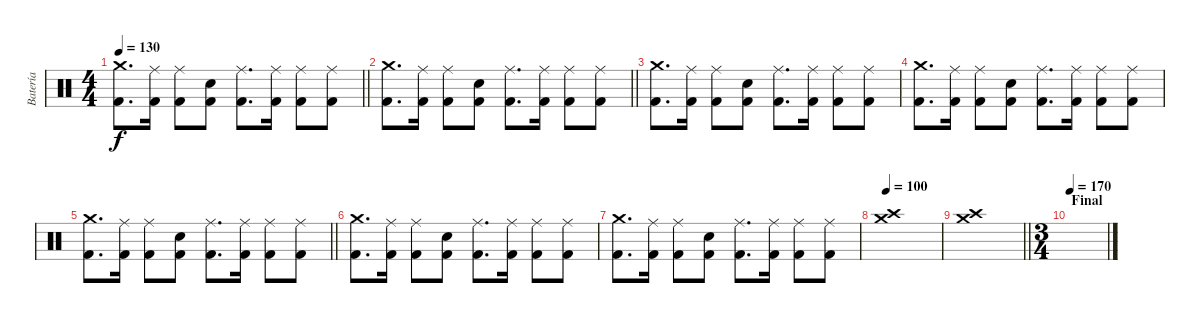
\track ("Batería" "Batería") {instrument percussion}
\staff {score}
\articulation defaults
\ts (4 4)
\tempo 130
\clef neutral
\barLineRight lightlight
\ks c
("Crash medium (hit)" "Kick (hit) 2").8{d dy f} ("Ride (middle)" "Kick (hit) 2").16 ("Ride (middle)" "Kick (hit) 2").8 ("Electric Snare (hit)" "Kick (hit) 2").8 ("Ride (middle)" "Kick (hit) 2").8{d} ("Ride (middle)" "Kick (hit) 2").16 ("Ride (middle)" "Kick (hit) 2").8 ("Ride (middle)" "Kick (hit) 2").8 |
\barLineRight lightlight
("Crash medium (hit)" "Kick (hit) 2").8{d} ("Ride (middle)" "Kick (hit) 2").16 ("Ride (middle)" "Kick (hit) 2").8 ("Electric Snare (hit)" "Kick (hit) 2").8 ("Ride (middle)" "Kick (hit) 2").8{d} ("Ride (middle)" "Kick (hit) 2").16 ("Ride (middle)" "Kick (hit) 2").8 ("Ride (middle)" "Kick (hit) 2").8 |
("Crash medium (hit)" "Kick (hit) 2").8{d} ("Ride (middle)" "Kick (hit) 2").16 ("Ride (middle)" "Kick (hit) 2").8 ("Electric Snare (hit)" "Kick (hit) 2").8 ("Ride (middle)" "Kick (hit) 2").8{d} ("Ride (middle)" "Kick (hit) 2").16 ("Ride (middle)" "Kick (hit) 2").8 ("Ride (middle)" "Kick (hit) 2").8 |
("Crash medium (hit)" "Kick (hit) 2").8{d} ("Ride (middle)" "Kick (hit) 2").16 ("Ride (middle)" "Kick (hit) 2").8 ("Electric Snare (hit)" "Kick (hit) 2").8 ("Ride (middle)" "Kick (hit) 2").8{d} ("Ride (middle)" "Kick (hit) 2").16 ("Ride (middle)" "Kick (hit) 2").8 ("Ride (middle)" "Kick (hit) 2").8 |
\barLineRight lightlight
("Crash medium (hit)" "Kick (hit) 2").8{d} ("Ride (middle)" "Kick (hit) 2").16 ("Ride (middle)" "Kick (hit) 2").8 ("Electric Snare (hit)" "Kick (hit) 2").8 ("Ride (middle)" "Kick (hit) 2").8{d} ("Ride (middle)" "Kick (hit) 2").16 ("Ride (middle)" "Kick (hit) 2").8 ("Ride (middle)" "Kick (hit) 2").8 |
("Crash medium (hit)" "Kick (hit) 2").8{d} ("Ride (middle)" "Kick (hit) 2").16 ("Ride (middle)" "Kick (hit) 2").8 ("Electric Snare (hit)" "Kick (hit) 2").8 ("Ride (middle)" "Kick (hit) 2").8{d} ("Ride (middle)" "Kick (hit) 2").16 ("Ride (middle)" "Kick (hit) 2").8 ("Ride (middle)" "Kick (hit) 2").8 |
("Crash medium (hit)" "Kick (hit) 2").8{d} ("Ride (middle)" "Kick (hit) 2").16 ("Ride (middle)" "Kick (hit) 2").8 ("Electric Snare (hit)" "Kick (hit) 2").8 ("Ride (middle)" "Kick (hit) 2").8{d} ("Ride (middle)" "Kick (hit) 2").16 ("Ride (middle)" "Kick (hit) 2").8 ("Ride (middle)" "Kick (hit) 2").8 |
\tempo 100
("Crash medium (hit)" "Crash high (hit)").1 |
\barLineRight lightlight
("Crash medium (hit)" "Crash high (hit)").1 |
\ts (3 4)
\section ("" "Final")
\tempo 170
